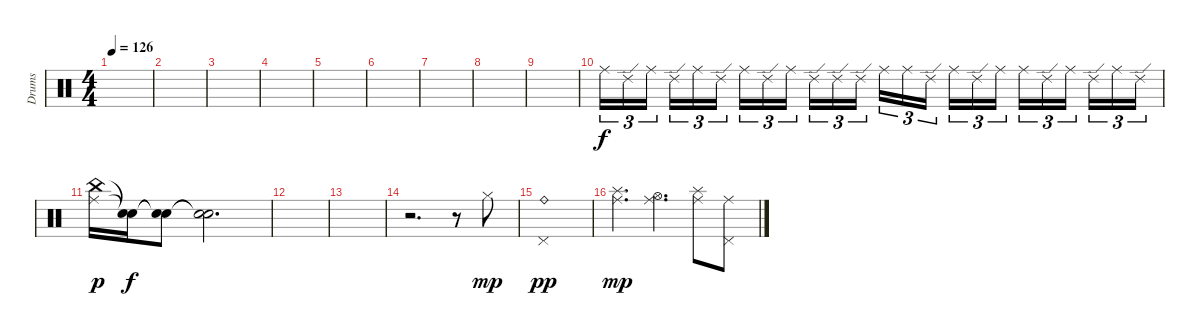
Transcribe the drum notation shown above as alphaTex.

\track ("Drums" "Drums") {instrument percussion}
\staff {score}
\articulation defaults
\ts (4 4)
\tempo 126
\clef neutral
\ks c
|
|
|
|
|
|
|
|
|
"Ride (middle)".16{tu (3 2) volume 1} "Ride (edge) 2".16{tu (3 2)} "Ride (middle)".16{tu (3 2) beam splitsecondary} "Ride (edge) 2".16{tu (3 2)} "Ride (middle)".16{tu (3 2)} "Ride (edge) 2".16{tu (3 2)} "Ride (middle)".16{tu (3 2) volume 4} "Ride (edge) 2".16{tu (3 2)} "Ride (middle)".16{tu (3 2) beam splitsecondary} "Ride (edge) 2".16{tu (3 2)} "Ride (edge) 2".16{tu (3 2)} "Ride (edge) 2".16{tu (3 2)} "Ride (middle)".16{tu (3 2) volume 8} "Ride (middle)".16{tu (3 2)} "Ride (edge) 2".16{tu (3 2) beam splitsecondary} "Ride (middle)".16{tu (3 2)} "Ride (edge) 2".16{tu (3 2)} "Ride (middle)".16{tu (3 2)} "Ride (middle)".16{tu (3 2) volume 12} "Ride (edge) 2".16{tu (3 2)} "Ride (middle)".16{tu (3 2) beam splitsecondary} "Ride (edge) 2".16{tu (3 2)} "Ride (middle)".16{tu (3 2)} "Ride (edge) 2".16{tu (3 2)} |
("Ride (middle)" "China (hit)").16{dy p volume 6} ("Snare (hit)"{t} "Snare (hit)"{t}).16{dy f volume 9} ("Snare (hit)"{t} "Snare (hit)"{t}).8{volume 12} ("Snare (hit)"{t} "Snare (hit)"{t}).2{d} |
|
|
r.2{d} r.8 "Hi-Hat (closed)".8{dy mp} |
("Pedal Hi-Hat (hit)" "Ride (bell)").1{dy pp} |
("Splash (hit)" "Ride (middle)").4{d dy mp} ("Hi-Hat (open)" "Ride (middle)").4{d} ("Splash (hit)" "Ride (middle)").8 ("Pedal Hi-Hat (hit)" "Ride (middle)").8
